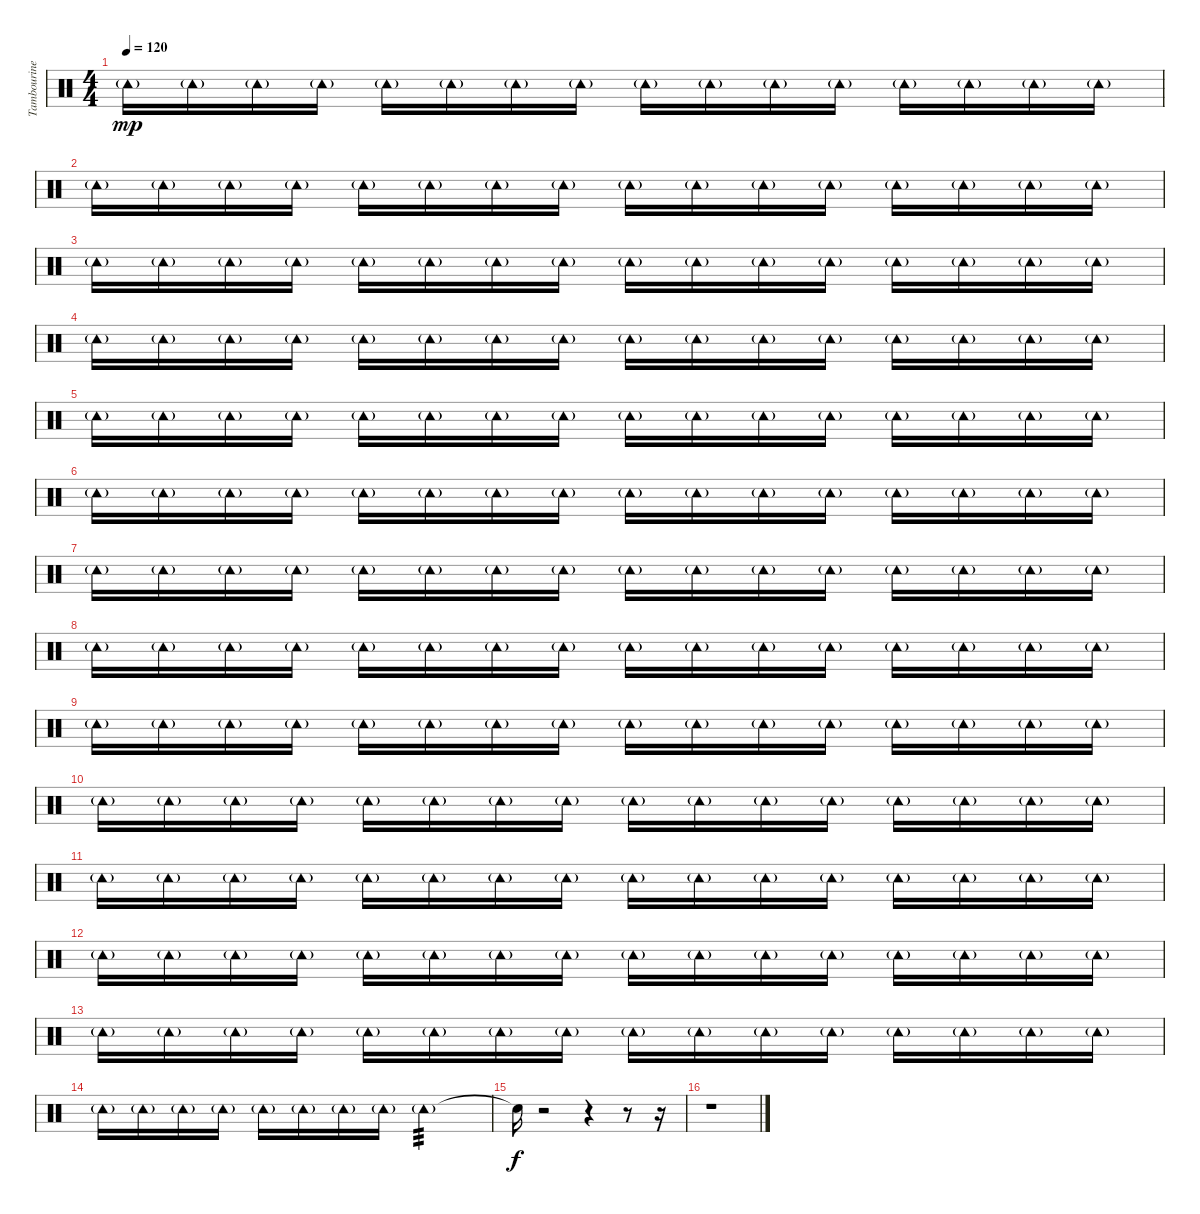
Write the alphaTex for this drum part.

\track ("Tambourine" "Tambourine") {instrument percussion}
\staff {score}
\articulation defaults
\ts (4 4)
\tempo 120
\clef neutral
\ks c "Tambourine (hit)"{g}.16{dy mp} "Tambourine (hit)"{g}.16 "Tambourine (hit)"{g}.16 "Tambourine (hit)"{g}.16 "Tambourine (hit)"{g}.16 "Tambourine (hit)"{g}.16 "Tambourine (hit)"{g}.16 "Tambourine (hit)"{g}.16 "Tambourine (hit)"{g}.16 "Tambourine (hit)"{g}.16 "Tambourine (hit)"{g}.16 "Tambourine (hit)"{g}.16 "Tambourine (hit)"{g}.16 "Tambourine (hit)"{g}.16 "Tambourine (hit)"{g}.16 "Tambourine (hit)"{g}.16
|
"Tambourine (hit)"{g}.16 "Tambourine (hit)"{g}.16 "Tambourine (hit)"{g}.16 "Tambourine (hit)"{g}.16 "Tambourine (hit)"{g}.16 "Tambourine (hit)"{g}.16 "Tambourine (hit)"{g}.16 "Tambourine (hit)"{g}.16 "Tambourine (hit)"{g}.16 "Tambourine (hit)"{g}.16 "Tambourine (hit)"{g}.16 "Tambourine (hit)"{g}.16 "Tambourine (hit)"{g}.16 "Tambourine (hit)"{g}.16 "Tambourine (hit)"{g}.16 "Tambourine (hit)"{g}.16 |
"Tambourine (hit)"{g}.16 "Tambourine (hit)"{g}.16 "Tambourine (hit)"{g}.16 "Tambourine (hit)"{g}.16 "Tambourine (hit)"{g}.16 "Tambourine (hit)"{g}.16 "Tambourine (hit)"{g}.16 "Tambourine (hit)"{g}.16 "Tambourine (hit)"{g}.16 "Tambourine (hit)"{g}.16 "Tambourine (hit)"{g}.16 "Tambourine (hit)"{g}.16 "Tambourine (hit)"{g}.16 "Tambourine (hit)"{g}.16 "Tambourine (hit)"{g}.16 "Tambourine (hit)"{g}.16 |
"Tambourine (hit)"{g}.16 "Tambourine (hit)"{g}.16 "Tambourine (hit)"{g}.16 "Tambourine (hit)"{g}.16 "Tambourine (hit)"{g}.16 "Tambourine (hit)"{g}.16 "Tambourine (hit)"{g}.16 "Tambourine (hit)"{g}.16 "Tambourine (hit)"{g}.16 "Tambourine (hit)"{g}.16 "Tambourine (hit)"{g}.16 "Tambourine (hit)"{g}.16 "Tambourine (hit)"{g}.16 "Tambourine (hit)"{g}.16 "Tambourine (hit)"{g}.16 "Tambourine (hit)"{g}.16 |
"Tambourine (hit)"{g}.16 "Tambourine (hit)"{g}.16 "Tambourine (hit)"{g}.16 "Tambourine (hit)"{g}.16 "Tambourine (hit)"{g}.16 "Tambourine (hit)"{g}.16 "Tambourine (hit)"{g}.16 "Tambourine (hit)"{g}.16 "Tambourine (hit)"{g}.16 "Tambourine (hit)"{g}.16 "Tambourine (hit)"{g}.16 "Tambourine (hit)"{g}.16 "Tambourine (hit)"{g}.16 "Tambourine (hit)"{g}.16 "Tambourine (hit)"{g}.16 "Tambourine (hit)"{g}.16 |
"Tambourine (hit)"{g}.16 "Tambourine (hit)"{g}.16 "Tambourine (hit)"{g}.16 "Tambourine (hit)"{g}.16 "Tambourine (hit)"{g}.16 "Tambourine (hit)"{g}.16 "Tambourine (hit)"{g}.16 "Tambourine (hit)"{g}.16 "Tambourine (hit)"{g}.16 "Tambourine (hit)"{g}.16 "Tambourine (hit)"{g}.16 "Tambourine (hit)"{g}.16 "Tambourine (hit)"{g}.16 "Tambourine (hit)"{g}.16 "Tambourine (hit)"{g}.16 "Tambourine (hit)"{g}.16 |
"Tambourine (hit)"{g}.16 "Tambourine (hit)"{g}.16 "Tambourine (hit)"{g}.16 "Tambourine (hit)"{g}.16 "Tambourine (hit)"{g}.16 "Tambourine (hit)"{g}.16 "Tambourine (hit)"{g}.16 "Tambourine (hit)"{g}.16 "Tambourine (hit)"{g}.16 "Tambourine (hit)"{g}.16 "Tambourine (hit)"{g}.16 "Tambourine (hit)"{g}.16 "Tambourine (hit)"{g}.16 "Tambourine (hit)"{g}.16 "Tambourine (hit)"{g}.16 "Tambourine (hit)"{g}.16 |
"Tambourine (hit)"{g}.16 "Tambourine (hit)"{g}.16 "Tambourine (hit)"{g}.16 "Tambourine (hit)"{g}.16 "Tambourine (hit)"{g}.16 "Tambourine (hit)"{g}.16 "Tambourine (hit)"{g}.16 "Tambourine (hit)"{g}.16 "Tambourine (hit)"{g}.16 "Tambourine (hit)"{g}.16 "Tambourine (hit)"{g}.16 "Tambourine (hit)"{g}.16 "Tambourine (hit)"{g}.16 "Tambourine (hit)"{g}.16 "Tambourine (hit)"{g}.16 "Tambourine (hit)"{g}.16 |
"Tambourine (hit)"{g}.16 "Tambourine (hit)"{g}.16 "Tambourine (hit)"{g}.16 "Tambourine (hit)"{g}.16 "Tambourine (hit)"{g}.16 "Tambourine (hit)"{g}.16 "Tambourine (hit)"{g}.16 "Tambourine (hit)"{g}.16 "Tambourine (hit)"{g}.16 "Tambourine (hit)"{g}.16 "Tambourine (hit)"{g}.16 "Tambourine (hit)"{g}.16 "Tambourine (hit)"{g}.16 "Tambourine (hit)"{g}.16 "Tambourine (hit)"{g}.16 "Tambourine (hit)"{g}.16 |
"Tambourine (hit)"{g}.16 "Tambourine (hit)"{g}.16 "Tambourine (hit)"{g}.16 "Tambourine (hit)"{g}.16 "Tambourine (hit)"{g}.16 "Tambourine (hit)"{g}.16 "Tambourine (hit)"{g}.16 "Tambourine (hit)"{g}.16 "Tambourine (hit)"{g}.16 "Tambourine (hit)"{g}.16 "Tambourine (hit)"{g}.16 "Tambourine (hit)"{g}.16 "Tambourine (hit)"{g}.16 "Tambourine (hit)"{g}.16 "Tambourine (hit)"{g}.16 "Tambourine (hit)"{g}.16 |
"Tambourine (hit)"{g}.16 "Tambourine (hit)"{g}.16 "Tambourine (hit)"{g}.16 "Tambourine (hit)"{g}.16 "Tambourine (hit)"{g}.16 "Tambourine (hit)"{g}.16 "Tambourine (hit)"{g}.16 "Tambourine (hit)"{g}.16 "Tambourine (hit)"{g}.16 "Tambourine (hit)"{g}.16 "Tambourine (hit)"{g}.16 "Tambourine (hit)"{g}.16 "Tambourine (hit)"{g}.16 "Tambourine (hit)"{g}.16 "Tambourine (hit)"{g}.16 "Tambourine (hit)"{g}.16 |
"Tambourine (hit)"{g}.16 "Tambourine (hit)"{g}.16 "Tambourine (hit)"{g}.16 "Tambourine (hit)"{g}.16 "Tambourine (hit)"{g}.16 "Tambourine (hit)"{g}.16 "Tambourine (hit)"{g}.16 "Tambourine (hit)"{g}.16 "Tambourine (hit)"{g}.16 "Tambourine (hit)"{g}.16 "Tambourine (hit)"{g}.16 "Tambourine (hit)"{g}.16 "Tambourine (hit)"{g}.16 "Tambourine (hit)"{g}.16 "Tambourine (hit)"{g}.16 "Tambourine (hit)"{g}.16 |
"Tambourine (hit)"{g}.16 "Tambourine (hit)"{g}.16 "Tambourine (hit)"{g}.16 "Tambourine (hit)"{g}.16 "Tambourine (hit)"{g}.16 "Tambourine (hit)"{g}.16 "Tambourine (hit)"{g}.16 "Tambourine (hit)"{g}.16 "Tambourine (hit)"{g}.16 "Tambourine (hit)"{g}.16 "Tambourine (hit)"{g}.16 "Tambourine (hit)"{g}.16 "Tambourine (hit)"{g}.16 "Tambourine (hit)"{g}.16 "Tambourine (hit)"{g}.16 "Tambourine (hit)"{g}.16 |
"Tambourine (hit)"{g}.16 "Tambourine (hit)"{g}.16 "Tambourine (hit)"{g}.16 "Tambourine (hit)"{g}.16 "Tambourine (hit)"{g}.16 "Tambourine (hit)"{g}.16 "Tambourine (hit)"{g}.16 "Tambourine (hit)"{g}.16 "Tambourine (hit)"{g}.2{tp 3} |
"Snare (hit)"{t}.16{dy f} r.2 r.4 r.8 r.16 |
r.1
